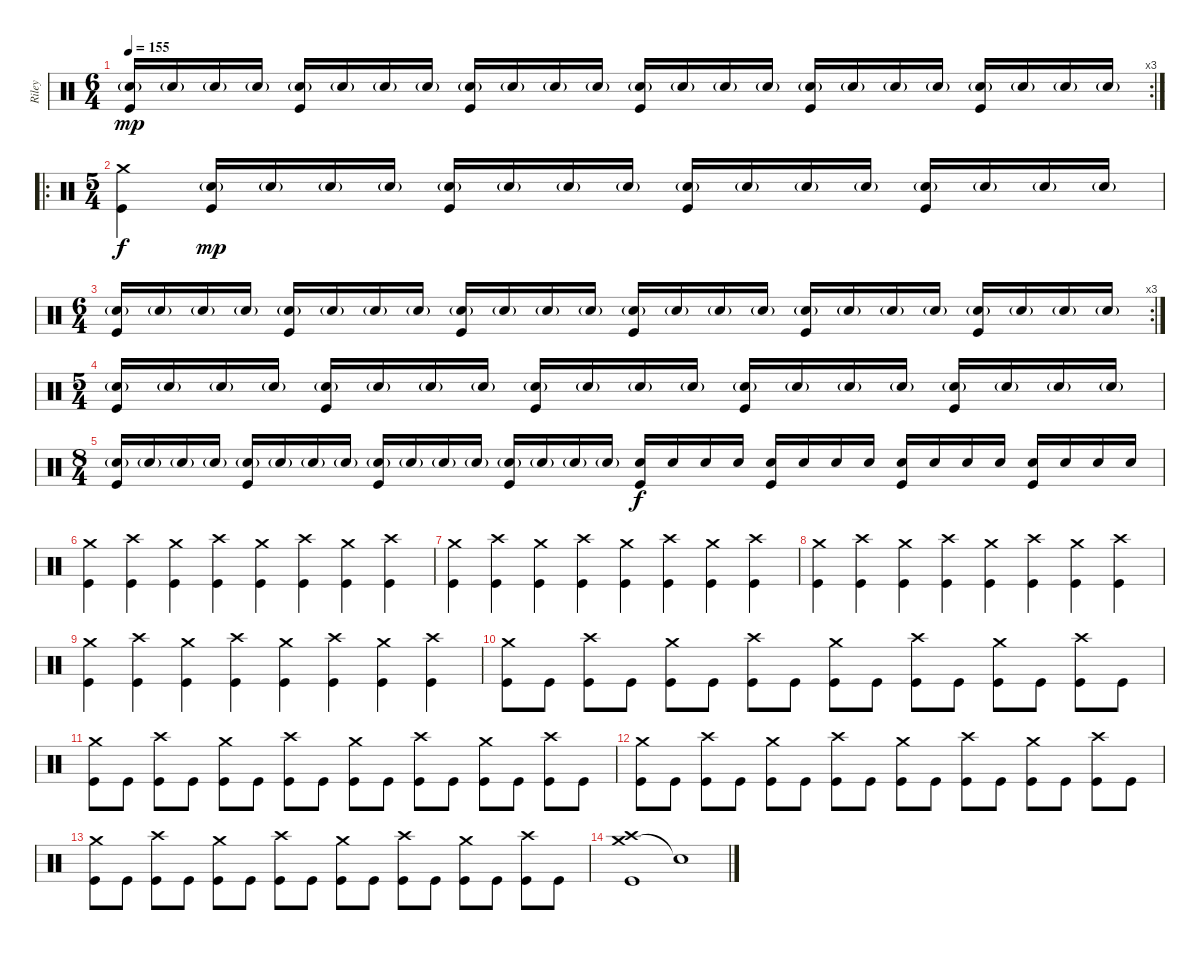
\track ("Riley" "Riley") {instrument percussion bank 177}
\staff {score}
\articulation defaults
\rc 3
\ts (6 4)
\tempo 155
\clef neutral
\ks c
("Snare (hit) 2"{g} "Kick (hit)").16{dy mp} "Snare (hit) 2"{g}.16 "Snare (hit) 2"{g}.16 "Snare (hit) 2"{g}.16 ("Snare (hit) 2"{g} "Kick (hit)").16 "Snare (hit) 2"{g}.16 "Snare (hit) 2"{g}.16 "Snare (hit) 2"{g}.16 ("Snare (hit) 2"{g} "Kick (hit)").16 "Snare (hit) 2"{g}.16 "Snare (hit) 2"{g}.16 "Snare (hit) 2"{g}.16 ("Snare (hit) 2"{g} "Kick (hit)").16 "Snare (hit) 2"{g}.16 "Snare (hit) 2"{g}.16 "Snare (hit) 2"{g}.16 ("Snare (hit) 2"{g} "Kick (hit)").16 "Snare (hit) 2"{g}.16 "Snare (hit) 2"{g}.16 "Snare (hit) 2"{g}.16 ("Snare (hit) 2"{g} "Kick (hit)").16 "Snare (hit) 2"{g}.16 "Snare (hit) 2"{g}.16 "Snare (hit) 2"{g}.16 |
\ro
\ts (5 4)
("Crash medium (hit)" "Kick (hit)").4{dy f} ("Snare (hit) 2"{g} "Kick (hit)").16{dy mp} "Snare (hit) 2"{g}.16 "Snare (hit) 2"{g}.16 "Snare (hit) 2"{g}.16 ("Snare (hit) 2"{g} "Kick (hit)").16 "Snare (hit) 2"{g}.16 "Snare (hit) 2"{g}.16 "Snare (hit) 2"{g}.16 ("Snare (hit) 2"{g} "Kick (hit)").16 "Snare (hit) 2"{g}.16 "Snare (hit) 2"{g}.16 "Snare (hit) 2"{g}.16 ("Snare (hit) 2"{g} "Kick (hit)").16 "Snare (hit) 2"{g}.16 "Snare (hit) 2"{g}.16 "Snare (hit) 2"{g}.16 |
\rc 3
\ts (6 4)
("Snare (hit) 2"{g} "Kick (hit)").16 "Snare (hit) 2"{g}.16 "Snare (hit) 2"{g}.16 "Snare (hit) 2"{g}.16 ("Snare (hit) 2"{g} "Kick (hit)").16 "Snare (hit) 2"{g}.16 "Snare (hit) 2"{g}.16 "Snare (hit) 2"{g}.16 ("Snare (hit) 2"{g} "Kick (hit)").16 "Snare (hit) 2"{g}.16 "Snare (hit) 2"{g}.16 "Snare (hit) 2"{g}.16 ("Snare (hit) 2"{g} "Kick (hit)").16 "Snare (hit) 2"{g}.16 "Snare (hit) 2"{g}.16 "Snare (hit) 2"{g}.16 ("Snare (hit) 2"{g} "Kick (hit)").16 "Snare (hit) 2"{g}.16 "Snare (hit) 2"{g}.16 "Snare (hit) 2"{g}.16 ("Snare (hit) 2"{g} "Kick (hit)").16 "Snare (hit) 2"{g}.16 "Snare (hit) 2"{g}.16 "Snare (hit) 2"{g}.16 |
\ts (5 4)
("Snare (hit) 2"{g} "Kick (hit)").16 "Snare (hit) 2"{g}.16 "Snare (hit) 2"{g}.16 "Snare (hit) 2"{g}.16 ("Snare (hit) 2"{g} "Kick (hit)").16 "Snare (hit) 2"{g}.16 "Snare (hit) 2"{g}.16 "Snare (hit) 2"{g}.16 ("Snare (hit) 2"{g} "Kick (hit)").16 "Snare (hit) 2"{g}.16 "Snare (hit) 2"{g}.16 "Snare (hit) 2"{g}.16 ("Snare (hit) 2"{g} "Kick (hit)").16 "Snare (hit) 2"{g}.16 "Snare (hit) 2"{g}.16 "Snare (hit) 2"{g}.16 ("Snare (hit) 2"{g} "Kick (hit)").16 "Snare (hit) 2"{g}.16 "Snare (hit) 2"{g}.16 "Snare (hit) 2"{g}.16 |
\ts (8 4)
("Snare (hit) 2"{g} "Kick (hit)").16 "Snare (hit) 2"{g}.16 "Snare (hit) 2"{g}.16 "Snare (hit) 2"{g}.16 ("Snare (hit) 2"{g} "Kick (hit)").16 "Snare (hit) 2"{g}.16 "Snare (hit) 2"{g}.16 "Snare (hit) 2"{g}.16 ("Snare (hit) 2"{g} "Kick (hit)").16 "Snare (hit) 2"{g}.16 "Snare (hit) 2"{g}.16 "Snare (hit) 2"{g}.16 ("Snare (hit) 2"{g} "Kick (hit)").16 "Snare (hit) 2"{g}.16 "Snare (hit) 2"{g}.16 "Snare (hit) 2"{g}.16 ("Snare (hit) 2" "Kick (hit)").16{dy f} "Snare (hit) 2".16 "Snare (hit) 2".16 "Snare (hit) 2".16 ("Snare (hit) 2" "Kick (hit)").16 "Snare (hit) 2".16 "Snare (hit) 2".16 "Snare (hit) 2".16 ("Snare (hit) 2" "Kick (hit)").16 "Snare (hit) 2".16 "Snare (hit) 2".16 "Snare (hit) 2".16 ("Snare (hit) 2" "Kick (hit)").16 "Snare (hit) 2".16 "Snare (hit) 2".16 "Snare (hit) 2".16 |
("Crash medium (hit)" "Kick (hit)").4 ("Crash high (hit)" "Kick (hit)").4 ("Crash medium (hit)" "Kick (hit)").4 ("Crash high (hit)" "Kick (hit)").4 ("Crash medium (hit)" "Kick (hit)").4 ("Crash high (hit)" "Kick (hit)").4 ("Crash medium (hit)" "Kick (hit)").4 ("Crash high (hit)" "Kick (hit)").4 |
("Crash medium (hit)" "Kick (hit)").4 ("Crash high (hit)" "Kick (hit)").4 ("Crash medium (hit)" "Kick (hit)").4 ("Crash high (hit)" "Kick (hit)").4 ("Crash medium (hit)" "Kick (hit)").4 ("Crash high (hit)" "Kick (hit)").4 ("Crash medium (hit)" "Kick (hit)").4 ("Crash high (hit)" "Kick (hit)").4 |
("Crash medium (hit)" "Kick (hit)").4 ("Crash high (hit)" "Kick (hit)").4 ("Crash medium (hit)" "Kick (hit)").4 ("Crash high (hit)" "Kick (hit)").4 ("Crash medium (hit)" "Kick (hit)").4 ("Crash high (hit)" "Kick (hit)").4 ("Crash medium (hit)" "Kick (hit)").4 ("Crash high (hit)" "Kick (hit)").4 |
("Crash medium (hit)" "Kick (hit)").4 ("Crash high (hit)" "Kick (hit)").4 ("Crash medium (hit)" "Kick (hit)").4 ("Crash high (hit)" "Kick (hit)").4 ("Crash medium (hit)" "Kick (hit)").4 ("Crash high (hit)" "Kick (hit)").4 ("Crash medium (hit)" "Kick (hit)").4 ("Crash high (hit)" "Kick (hit)").4 |
("Crash medium (hit)" "Kick (hit)").8 "Kick (hit)".8 ("Crash high (hit)" "Kick (hit)").8 "Kick (hit)".8 ("Crash medium (hit)" "Kick (hit)").8 "Kick (hit)".8 ("Crash high (hit)" "Kick (hit)").8 "Kick (hit)".8 ("Crash medium (hit)" "Kick (hit)").8 "Kick (hit)".8 ("Crash high (hit)" "Kick (hit)").8 "Kick (hit)".8 ("Crash medium (hit)" "Kick (hit)").8 "Kick (hit)".8 ("Crash high (hit)" "Kick (hit)").8 "Kick (hit)".8 |
("Crash medium (hit)" "Kick (hit)").8 "Kick (hit)".8 ("Crash high (hit)" "Kick (hit)").8 "Kick (hit)".8 ("Crash medium (hit)" "Kick (hit)").8 "Kick (hit)".8 ("Crash high (hit)" "Kick (hit)").8 "Kick (hit)".8 ("Crash medium (hit)" "Kick (hit)").8 "Kick (hit)".8 ("Crash high (hit)" "Kick (hit)").8 "Kick (hit)".8 ("Crash medium (hit)" "Kick (hit)").8 "Kick (hit)".8 ("Crash high (hit)" "Kick (hit)").8 "Kick (hit)".8 |
("Crash medium (hit)" "Kick (hit)").8 "Kick (hit)".8 ("Crash high (hit)" "Kick (hit)").8 "Kick (hit)".8 ("Crash medium (hit)" "Kick (hit)").8 "Kick (hit)".8 ("Crash high (hit)" "Kick (hit)").8 "Kick (hit)".8 ("Crash medium (hit)" "Kick (hit)").8 "Kick (hit)".8 ("Crash high (hit)" "Kick (hit)").8 "Kick (hit)".8 ("Crash medium (hit)" "Kick (hit)").8 "Kick (hit)".8 ("Crash high (hit)" "Kick (hit)").8 "Kick (hit)".8 |
("Crash medium (hit)" "Kick (hit)").8 "Kick (hit)".8 ("Crash high (hit)" "Kick (hit)").8 "Kick (hit)".8 ("Crash medium (hit)" "Kick (hit)").8 "Kick (hit)".8 ("Crash high (hit)" "Kick (hit)").8 "Kick (hit)".8 ("Crash medium (hit)" "Kick (hit)").8 "Kick (hit)".8 ("Crash high (hit)" "Kick (hit)").8 "Kick (hit)".8 ("Crash medium (hit)" "Kick (hit)").8 "Kick (hit)".8 ("Crash high (hit)" "Kick (hit)").8 "Kick (hit)".8 |
("Crash medium (hit)" "Crash high (hit)" "Kick (hit)").1 "Snare (hit)"{t}.1
